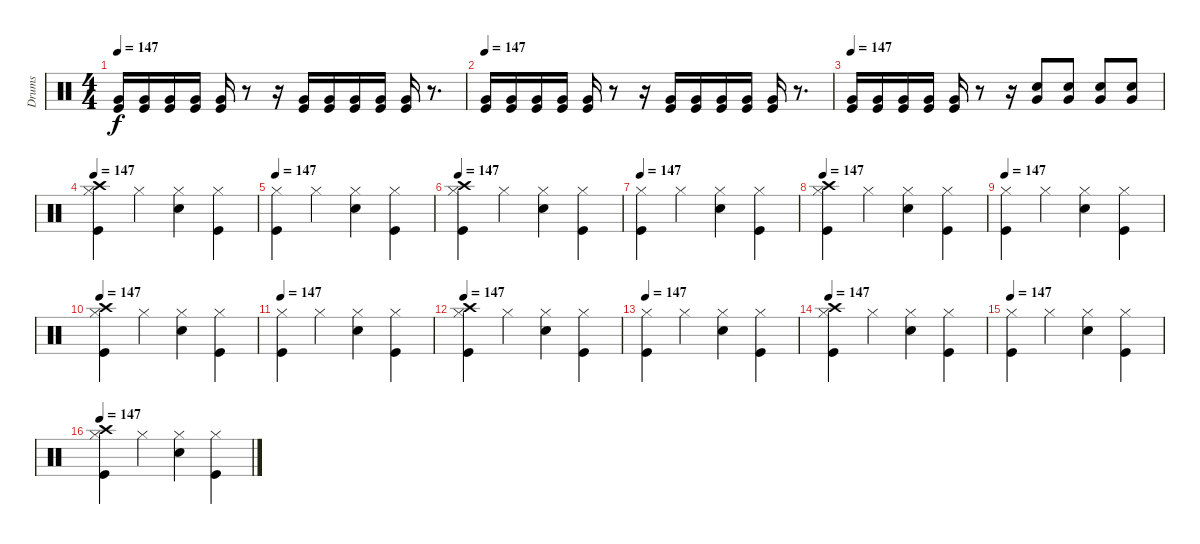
\track ("Drums" "Drums") {instrument percussion}
\staff {score}
\articulation defaults
\ts (4 4)
\tempo 147
\clef neutral
\ks c
("Very Low Tom (hit)" "Kick (hit)").16{dy f} ("Very Low Tom (hit)" "Kick (hit)").16 ("Very Low Tom (hit)" "Kick (hit)").16 ("Very Low Tom (hit)" "Kick (hit)").16 ("Very Low Tom (hit)" "Kick (hit)").16 r.8 r.16 ("Very Low Tom (hit)" "Kick (hit)").16 ("Very Low Tom (hit)" "Kick (hit)").16 ("Very Low Tom (hit)" "Kick (hit)").16 ("Very Low Tom (hit)" "Kick (hit)").16 ("Very Low Tom (hit)" "Kick (hit)").16 r.8{d} |
\tempo 147
("Very Low Tom (hit)" "Kick (hit)").16 ("Very Low Tom (hit)" "Kick (hit)").16 ("Very Low Tom (hit)" "Kick (hit)").16 ("Very Low Tom (hit)" "Kick (hit)").16 ("Very Low Tom (hit)" "Kick (hit)").16 r.8 r.16 ("Very Low Tom (hit)" "Kick (hit)").16 ("Very Low Tom (hit)" "Kick (hit)").16 ("Very Low Tom (hit)" "Kick (hit)").16 ("Very Low Tom (hit)" "Kick (hit)").16 ("Very Low Tom (hit)" "Kick (hit)").16 r.8{d} |
\tempo 147
("Very Low Tom (hit)" "Kick (hit)").16 ("Very Low Tom (hit)" "Kick (hit)").16 ("Very Low Tom (hit)" "Kick (hit)").16 ("Very Low Tom (hit)" "Kick (hit)").16 ("Very Low Tom (hit)" "Kick (hit)").16 r.8 r.16 ("Very Low Tom (hit)" "Snare (hit) 2").8 ("Very Low Tom (hit)" "Snare (hit) 2").8 ("Very Low Tom (hit)" "Snare (hit) 2").8 ("Very Low Tom (hit)" "Snare (hit) 2").8 |
\tempo 141
\tempo 147
("Hi-Hat (closed)" "Crash high (hit)" "Kick (hit)").4 "Hi-Hat (closed)".4 ("Hi-Hat (closed)" "Snare (hit) 2").4 ("Hi-Hat (closed)" "Kick (hit)").4 |
\tempo 147
("Hi-Hat (closed)" "Kick (hit)").4 "Hi-Hat (closed)".4 ("Hi-Hat (closed)" "Snare (hit) 2").4 ("Hi-Hat (closed)" "Kick (hit)").4 |
\tempo 141
\tempo 147
("Hi-Hat (closed)" "Crash high (hit)" "Kick (hit)").4 "Hi-Hat (closed)".4 ("Hi-Hat (closed)" "Snare (hit) 2").4 ("Hi-Hat (closed)" "Kick (hit)").4 |
\tempo 147
("Hi-Hat (closed)" "Kick (hit)").4 "Hi-Hat (closed)".4 ("Hi-Hat (closed)" "Snare (hit) 2").4 ("Hi-Hat (closed)" "Kick (hit)").4 |
\tempo 141
\tempo 147
("Hi-Hat (closed)" "Crash high (hit)" "Kick (hit)").4 "Hi-Hat (closed)".4 ("Hi-Hat (closed)" "Snare (hit) 2").4 ("Hi-Hat (closed)" "Kick (hit)").4 |
\tempo 147
("Hi-Hat (closed)" "Kick (hit)").4 "Hi-Hat (closed)".4 ("Hi-Hat (closed)" "Snare (hit) 2").4 ("Hi-Hat (closed)" "Kick (hit)").4 |
\tempo 141
\tempo 147
("Hi-Hat (closed)" "Crash high (hit)" "Kick (hit)").4 "Hi-Hat (closed)".4 ("Hi-Hat (closed)" "Snare (hit) 2").4 ("Hi-Hat (closed)" "Kick (hit)").4 |
\tempo 147
("Hi-Hat (closed)" "Kick (hit)").4 "Hi-Hat (closed)".4 ("Hi-Hat (closed)" "Snare (hit) 2").4 ("Hi-Hat (closed)" "Kick (hit)").4 |
\tempo 141
\tempo 147
("Hi-Hat (closed)" "Crash high (hit)" "Kick (hit)").4 "Hi-Hat (closed)".4 ("Hi-Hat (closed)" "Snare (hit) 2").4 ("Hi-Hat (closed)" "Kick (hit)").4 |
\tempo 147
("Hi-Hat (closed)" "Kick (hit)").4 "Hi-Hat (closed)".4 ("Hi-Hat (closed)" "Snare (hit) 2").4 ("Hi-Hat (closed)" "Kick (hit)").4 |
\tempo 141
\tempo 147
("Hi-Hat (closed)" "Crash high (hit)" "Kick (hit)").4 "Hi-Hat (closed)".4 ("Hi-Hat (closed)" "Snare (hit) 2").4 ("Hi-Hat (closed)" "Kick (hit)").4 |
\tempo 147
("Hi-Hat (closed)" "Kick (hit)").4 "Hi-Hat (closed)".4 ("Hi-Hat (closed)" "Snare (hit) 2").4 ("Hi-Hat (closed)" "Kick (hit)").4 |
\tempo 141
\tempo 147
("Hi-Hat (closed)" "Crash high (hit)" "Kick (hit)").4 "Hi-Hat (closed)".4 ("Hi-Hat (closed)" "Snare (hit) 2").4 ("Hi-Hat (closed)" "Kick (hit)").4
